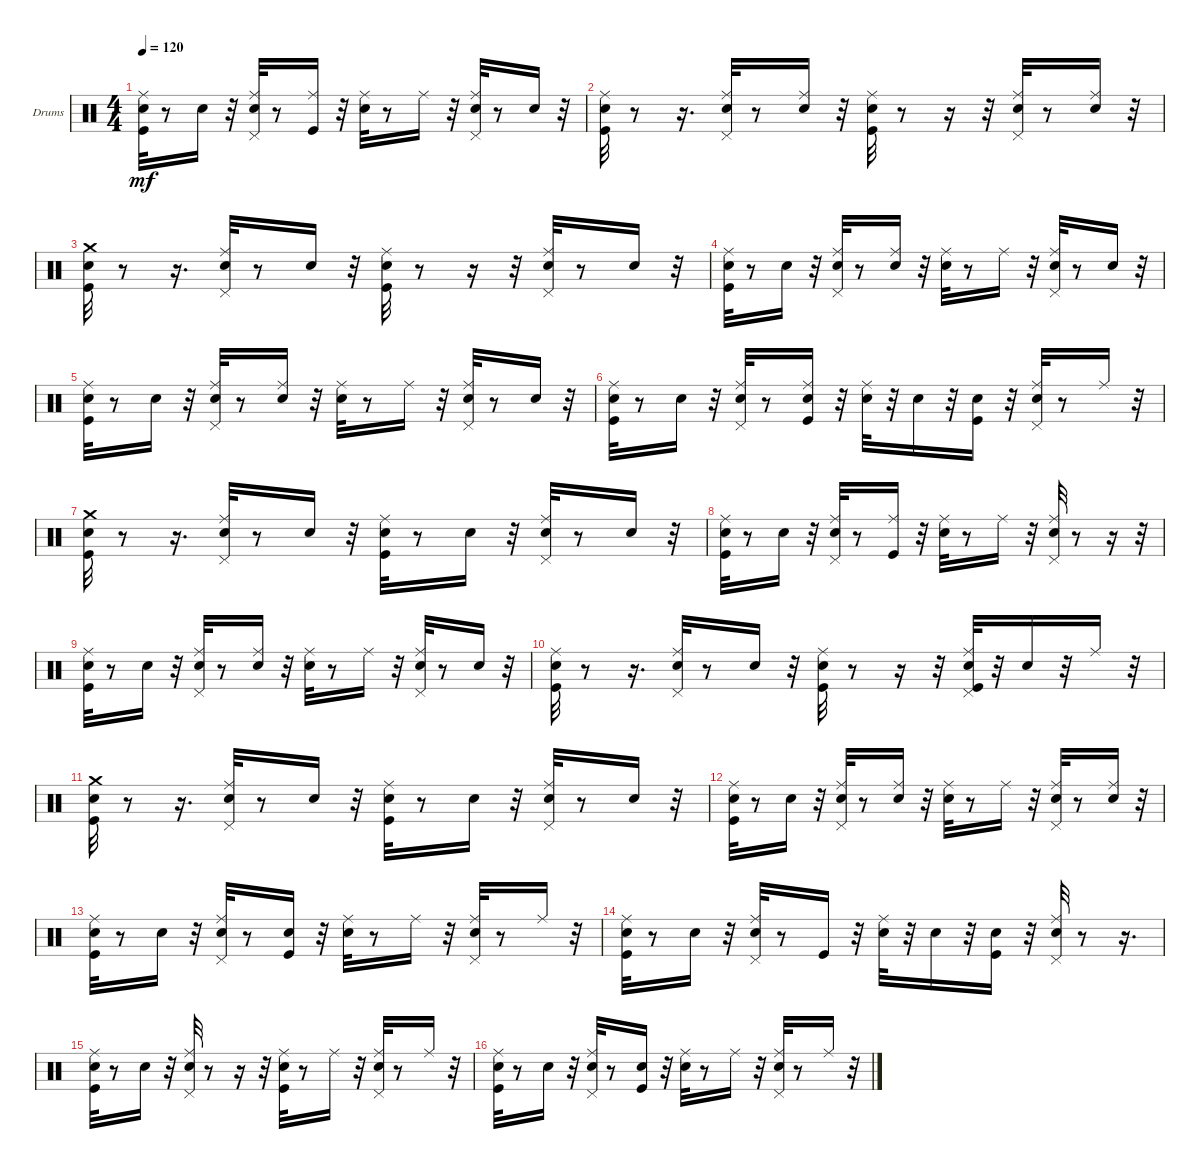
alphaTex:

\bracketExtendMode groupsimilarinstruments
\firstSystemTrackNameOrientation horizontal
\otherSystemsTrackNameOrientation horizontal
\track ("Drums   (BB)" "Drums") {instrument percussion}
\staff {score}
\articulation defaults
\ts (4 4)
\tempo 120
\clef neutral
\ks c
("Kick (hit)" "Snare (hit) 2" "Ride (middle)").32{dy mf} r.8 "Snare (hit) 2".16 r.32 ("Snare (hit) 2" "Ride (middle)" "Pedal Hi-Hat (hit)").32 r.8 ("Kick (hit)" "Ride (middle)").16 r.32 ("Snare (hit) 2" "Ride (middle)").32 r.8 "Ride (middle)".16 r.32 ("Snare (hit) 2" "Ride (middle)" "Pedal Hi-Hat (hit)").32 r.8 "Snare (hit) 2".16 r.32 |
("Kick (hit)" "Snare (hit) 2" "Ride (middle)").32 r.8 r.16{d} ("Snare (hit) 2" "Ride (middle)" "Pedal Hi-Hat (hit)").32 r.8 ("Snare (hit) 2" "Ride (middle)").16 r.32 ("Kick (hit)" "Snare (hit) 2" "Ride (middle)").32 r.8 r.16 r.32 ("Snare (hit) 2" "Ride (middle)" "Pedal Hi-Hat (hit)").32 r.8 ("Snare (hit) 2" "Ride (middle)").16 r.32 |
("Kick (hit)" "Snare (hit) 2" "Crash medium (hit)").32 r.8 r.16{d} ("Snare (hit) 2" "Ride (middle)" "Pedal Hi-Hat (hit)").32 r.8 "Snare (hit) 2".16 r.32 ("Kick (hit)" "Snare (hit) 2" "Ride (middle)").32 r.8 r.16 r.32 ("Snare (hit) 2" "Ride (middle)" "Pedal Hi-Hat (hit)").32 r.8 "Snare (hit) 2".16 r.32 |
("Kick (hit)" "Snare (hit) 2" "Ride (middle)").32 r.8 "Snare (hit) 2".16 r.32 ("Snare (hit) 2" "Ride (middle)" "Pedal Hi-Hat (hit)").32 r.8 ("Snare (hit) 2" "Ride (middle)").16 r.32 ("Snare (hit) 2" "Ride (middle)").32 r.8 "Ride (middle)".16 r.32 ("Snare (hit) 2" "Ride (middle)" "Pedal Hi-Hat (hit)").32 r.8 "Snare (hit) 2".16 r.32 |
("Kick (hit)" "Snare (hit) 2" "Ride (middle)").32 r.8 "Snare (hit) 2".16 r.32 ("Snare (hit) 2" "Ride (middle)" "Pedal Hi-Hat (hit)").32 r.8 ("Snare (hit) 2" "Ride (middle)").16 r.32 ("Snare (hit) 2" "Ride (middle)").32 r.8 "Ride (middle)".16 r.32 ("Snare (hit) 2" "Ride (middle)" "Pedal Hi-Hat (hit)").32 r.8 "Snare (hit) 2".16 r.32 |
("Kick (hit)" "Snare (hit) 2" "Ride (middle)").32 r.8 "Snare (hit) 2".16 r.32 ("Snare (hit) 2" "Ride (middle)" "Pedal Hi-Hat (hit)").32 r.8 ("Kick (hit)" "Snare (hit) 2" "Ride (middle)").16 r.32 ("Snare (hit) 2" "Ride (middle)").32 r.32 "Snare (hit) 2".16 r.32 ("Kick (hit)" "Snare (hit) 2").16 r.32 ("Snare (hit) 2" "Ride (middle)" "Pedal Hi-Hat (hit)").32 r.8 "Ride (middle)".16 r.32 |
("Kick (hit)" "Snare (hit) 2" "Crash medium (hit)").32 r.8 r.16{d} ("Snare (hit) 2" "Ride (middle)" "Pedal Hi-Hat (hit)").32 r.8 "Snare (hit) 2".16 r.32 ("Kick (hit)" "Snare (hit) 2" "Ride (middle)").32 r.8 "Snare (hit) 2".16 r.32 ("Snare (hit) 2" "Ride (middle)" "Pedal Hi-Hat (hit)").32 r.8 "Snare (hit) 2".16 r.32 |
("Kick (hit)" "Snare (hit) 2" "Ride (middle)").32 r.8 "Snare (hit) 2".16 r.32 ("Snare (hit) 2" "Ride (middle)" "Pedal Hi-Hat (hit)").32 r.8 ("Kick (hit)" "Ride (middle)").16 r.32 ("Snare (hit) 2" "Ride (middle)").32 r.8 "Ride (middle)".16 r.32 ("Snare (hit) 2" "Ride (middle)" "Pedal Hi-Hat (hit)").32 r.8 r.16 r.32 |
("Kick (hit)" "Snare (hit) 2" "Ride (middle)").32 r.8 "Snare (hit) 2".16 r.32 ("Snare (hit) 2" "Ride (middle)" "Pedal Hi-Hat (hit)").32 r.8 ("Snare (hit) 2" "Ride (middle)").16 r.32 ("Snare (hit) 2" "Ride (middle)").32 r.8 "Ride (middle)".16 r.32 ("Snare (hit) 2" "Ride (middle)" "Pedal Hi-Hat (hit)").32 r.8 "Snare (hit) 2".16 r.32 |
("Kick (hit)" "Snare (hit) 2" "Ride (middle)").32 r.8 r.16{d} ("Snare (hit) 2" "Ride (middle)" "Pedal Hi-Hat (hit)").32 r.8 "Snare (hit) 2".16 r.32 ("Kick (hit)" "Snare (hit) 2" "Ride (middle)").32 r.8 r.16 r.32 ("Kick (hit)" "Snare (hit) 2" "Ride (middle)" "Pedal Hi-Hat (hit)").32 r.32 "Snare (hit) 2".16 r.32 "Ride (middle)".16 r.32 |
("Kick (hit)" "Snare (hit) 2" "Crash medium (hit)").32 r.8 r.16{d} ("Snare (hit) 2" "Ride (middle)" "Pedal Hi-Hat (hit)").32 r.8 "Snare (hit) 2".16 r.32 ("Kick (hit)" "Snare (hit) 2" "Ride (middle)").32 r.8 "Snare (hit) 2".16 r.32 ("Snare (hit) 2" "Ride (middle)" "Pedal Hi-Hat (hit)").32 r.8 "Snare (hit) 2".16 r.32 |
("Kick (hit)" "Snare (hit) 2" "Ride (middle)").32 r.8 "Snare (hit) 2".16 r.32 ("Snare (hit) 2" "Ride (middle)" "Pedal Hi-Hat (hit)").32 r.8 ("Snare (hit) 2" "Ride (middle)").16 r.32 ("Snare (hit) 2" "Ride (middle)").32 r.8 "Ride (middle)".16 r.32 ("Snare (hit) 2" "Ride (middle)" "Pedal Hi-Hat (hit)").32 r.8 ("Snare (hit) 2" "Ride (middle)").16 r.32 |
("Kick (hit)" "Snare (hit) 2" "Ride (middle)").32 r.8 "Snare (hit) 2".16 r.32 ("Snare (hit) 2" "Ride (middle)" "Pedal Hi-Hat (hit)").32 r.8 ("Kick (hit)" "Snare (hit) 2").16 r.32 ("Snare (hit) 2" "Ride (middle)").32 r.8 "Ride (middle)".16 r.32 ("Snare (hit) 2" "Ride (middle)" "Pedal Hi-Hat (hit)").32 r.8 "Ride (middle)".16 r.32 |
("Kick (hit)" "Snare (hit) 2" "Ride (middle)").32 r.8 "Snare (hit) 2".16 r.32 ("Snare (hit) 2" "Ride (middle)" "Pedal Hi-Hat (hit)").32 r.8 "Kick (hit)".16 r.32 ("Snare (hit) 2" "Ride (middle)").32 r.32 "Snare (hit) 2".16 r.32 ("Kick (hit)" "Snare (hit) 2").16 r.32 ("Snare (hit) 2" "Ride (middle)" "Pedal Hi-Hat (hit)").32 r.8 r.16{d} |
("Kick (hit)" "Snare (hit) 2" "Ride (middle)").32 r.8 "Snare (hit) 2".16 r.32 ("Snare (hit) 2" "Ride (middle)" "Pedal Hi-Hat (hit)").32 r.8 r.16 r.32 ("Kick (hit)" "Snare (hit) 2" "Ride (middle)").32 r.8 "Ride (middle)".16 r.32 ("Snare (hit) 2" "Ride (middle)" "Pedal Hi-Hat (hit)").32 r.8 "Ride (middle)".16 r.32 |
("Kick (hit)" "Snare (hit) 2" "Ride (middle)").32 r.8 "Snare (hit) 2".16 r.32 ("Snare (hit) 2" "Ride (middle)" "Pedal Hi-Hat (hit)").32 r.8 ("Kick (hit)" "Snare (hit) 2").16 r.32 ("Snare (hit) 2" "Ride (middle)").32 r.8 "Ride (middle)".16 r.32 ("Snare (hit) 2" "Ride (middle)" "Pedal Hi-Hat (hit)").32 r.8 "Ride (middle)".16 r.32
